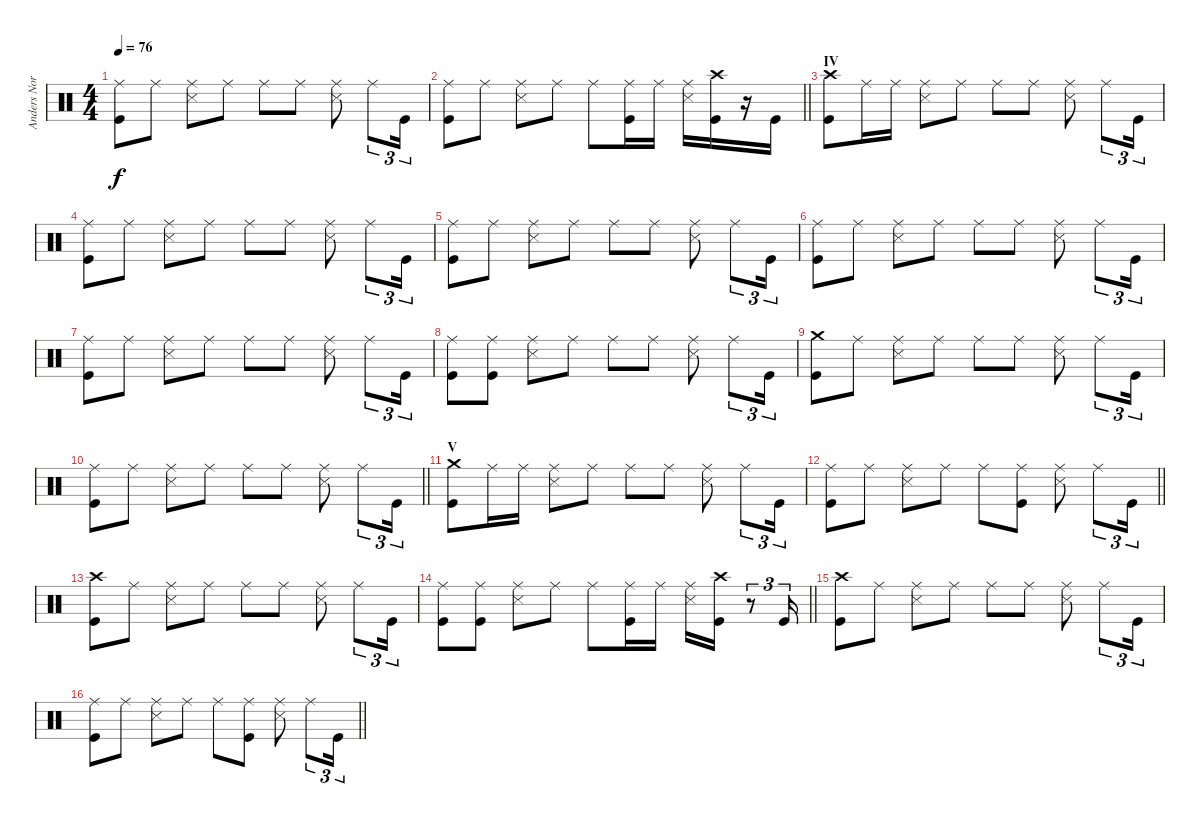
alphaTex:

\track ("Anders Nordin - Drums" "Anders Nor") {instrument percussion}
\staff {score}
\articulation defaults
\ts (4 4)
\tempo 76
\clef neutral
\ks c
("Ride (middle)" "Kick (hit)").8{dy f} "Ride (middle)".8 ("Ride (middle)" "Snare (side stick) 3").8 "Ride (middle)".8 "Ride (middle)".8 "Ride (middle)".8 ("Ride (middle)" "Snare (side stick) 3").8 "Ride (middle)".8{tu (3 2)} "Kick (hit)".16{tu (3 2)} |
\barLineRight lightlight
("Ride (middle)" "Kick (hit)").8 "Ride (middle)".8 ("Ride (middle)" "Snare (side stick) 3").8 "Ride (middle)".8 "Ride (middle)".8 ("Ride (middle)" "Kick (hit)").16 "Ride (middle)".16 ("Ride (middle)" "Snare (side stick) 3").16 ("Kick (hit)" "Crash high (hit)").16 r.16 "Kick (hit)".16 |
\section ("" "IV")
("Crash high (hit)" "Kick (hit)").8 "Ride (middle)".16 "Ride (middle)".16 ("Ride (middle)" "Snare (side stick) 3").8 "Ride (middle)".8 "Ride (middle)".8 "Ride (middle)".8 ("Ride (middle)" "Snare (side stick) 3").8 "Ride (middle)".8{tu (3 2)} "Kick (hit)".16{tu (3 2)} |
("Ride (middle)" "Kick (hit)").8 "Ride (middle)".8 ("Ride (middle)" "Snare (side stick) 3").8 "Ride (middle)".8 "Ride (middle)".8 "Ride (middle)".8 ("Ride (middle)" "Snare (side stick) 3").8 "Ride (middle)".8{tu (3 2)} "Kick (hit)".16{tu (3 2)} |
("Ride (middle)" "Kick (hit)").8 "Ride (middle)".8 ("Ride (middle)" "Snare (side stick) 3").8 "Ride (middle)".8 "Ride (middle)".8 "Ride (middle)".8 ("Ride (middle)" "Snare (side stick) 3").8 "Ride (middle)".8{tu (3 2)} "Kick (hit)".16{tu (3 2)} |
("Ride (middle)" "Kick (hit)").8 "Ride (middle)".8 ("Ride (middle)" "Snare (side stick) 3").8 "Ride (middle)".8 "Ride (middle)".8 "Ride (middle)".8 ("Ride (middle)" "Snare (side stick) 3").8 "Ride (middle)".8{tu (3 2)} "Kick (hit)".16{tu (3 2)} |
("Ride (middle)" "Kick (hit)").8 "Ride (middle)".8 ("Ride (middle)" "Snare (side stick) 3").8 "Ride (middle)".8 "Ride (middle)".8 "Ride (middle)".8 ("Ride (middle)" "Snare (side stick) 3").8 "Ride (middle)".8{tu (3 2)} "Kick (hit)".16{tu (3 2)} |
("Ride (middle)" "Kick (hit)").8 ("Ride (middle)" "Kick (hit)").8 ("Ride (middle)" "Snare (side stick) 3").8 "Ride (middle)".8 "Ride (middle)".8 "Ride (middle)".8 ("Ride (middle)" "Snare (side stick) 3").8 "Ride (middle)".8{tu (3 2)} "Kick (hit)".16{tu (3 2)} |
("Crash medium (hit)" "Kick (hit)").8 "Ride (middle)".8 ("Ride (middle)" "Snare (side stick) 3").8 "Ride (middle)".8 "Ride (middle)".8 "Ride (middle)".8 ("Ride (middle)" "Snare (side stick) 3").8 "Ride (middle)".8{tu (3 2)} "Kick (hit)".16{tu (3 2)} |
\barLineRight lightlight
("Ride (middle)" "Kick (hit)").8 "Ride (middle)".8 ("Ride (middle)" "Snare (side stick) 3").8 "Ride (middle)".8 "Ride (middle)".8 "Ride (middle)".8 ("Ride (middle)" "Snare (side stick) 3").8 "Ride (middle)".8{tu (3 2)} "Kick (hit)".16{tu (3 2)} |
\section ("" "V")
("Crash medium (hit)" "Kick (hit)").8 "Ride (middle)".16 "Ride (middle)".16 ("Ride (middle)" "Snare (side stick) 3").8 "Ride (middle)".8 "Ride (middle)".8 "Ride (middle)".8 ("Ride (middle)" "Snare (side stick) 3").8 "Ride (middle)".8{tu (3 2)} "Kick (hit)".16{tu (3 2)} |
\barLineRight lightlight
("Ride (middle)" "Kick (hit)").8 "Ride (middle)".8 ("Ride (middle)" "Snare (side stick) 3").8 "Ride (middle)".8 "Ride (middle)".8 ("Ride (middle)" "Kick (hit)").8 ("Ride (middle)" "Snare (side stick) 3").8 "Ride (middle)".8{tu (3 2)} "Kick (hit)".16{tu (3 2)} |
("Crash high (hit)" "Kick (hit)").8 "Ride (middle)".8 ("Ride (middle)" "Snare (side stick) 3").8 "Ride (middle)".8 "Ride (middle)".8 "Ride (middle)".8 ("Ride (middle)" "Snare (side stick) 3").8 "Ride (middle)".8{tu (3 2)} "Kick (hit)".16{tu (3 2)} |
\barLineRight lightlight
("Ride (middle)" "Kick (hit)").8 ("Ride (middle)" "Kick (hit)").8 ("Ride (middle)" "Snare (side stick) 3").8 "Ride (middle)".8 "Ride (middle)".8 ("Ride (middle)" "Kick (hit)").16 "Ride (middle)".16 ("Ride (middle)" "Snare (side stick) 3").16 ("Crash high (hit)" "Kick (hit)").16 r.8{tu (3 2)} "Kick (hit)".16{tu (3 2)} |
("Crash high (hit)" "Kick (hit)").8 "Ride (middle)".8 ("Ride (middle)" "Snare (side stick) 3").8 "Ride (middle)".8 "Ride (middle)".8 "Ride (middle)".8 ("Ride (middle)" "Snare (side stick) 3").8 "Ride (middle)".8{tu (3 2)} "Kick (hit)".16{tu (3 2)} |
\barLineRight lightlight
("Ride (middle)" "Kick (hit)").8 "Ride (middle)".8 ("Ride (middle)" "Snare (side stick) 3").8 "Ride (middle)".8 "Ride (middle)".8 ("Ride (middle)" "Kick (hit)").8 ("Ride (middle)" "Snare (side stick) 3").8 "Ride (middle)".8{tu (3 2)} "Kick (hit)".16{tu (3 2)}
